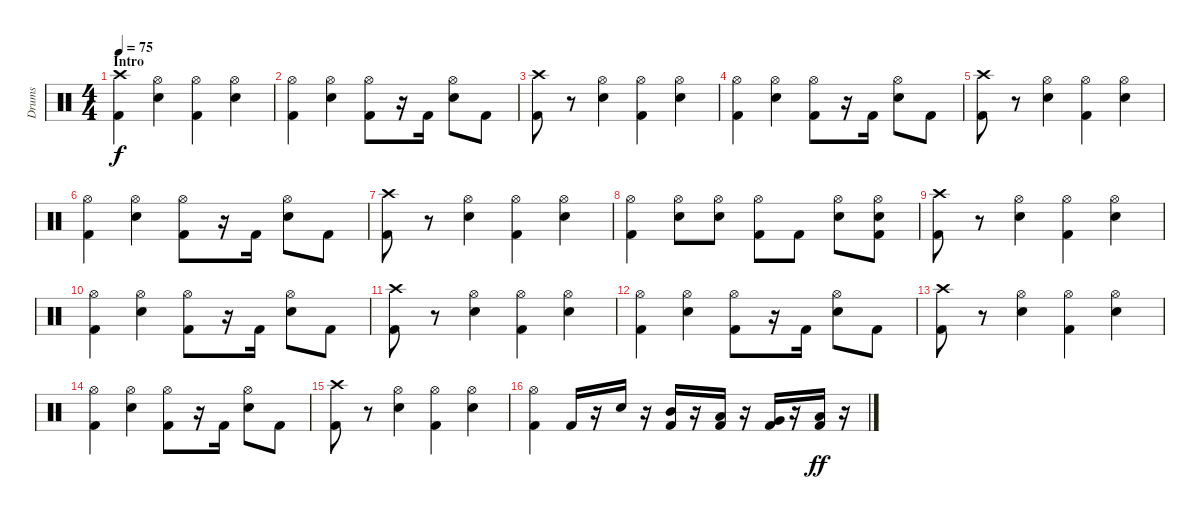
\track ("Drums" "Drums") {instrument percussion}
\staff {score}
\articulation defaults
\ts (4 4)
\section ("" "Intro")
\tempo 75
\clef neutral
\ks c
("Crash high (hit)" "Kick (hit) 2").4{dy f} ("Hi-Hat (open)" "Snare (hit) 2").4 ("Hi-Hat (open)" "Kick (hit) 2").4 ("Hi-Hat (open)" "Snare (hit) 2").4 |
("Hi-Hat (open)" "Kick (hit) 2").4 ("Hi-Hat (open)" "Snare (hit) 2").4 ("Hi-Hat (open)" "Kick (hit) 2").8 r.16 "Kick (hit) 2".16 ("Hi-Hat (open)" "Snare (hit) 2").8 "Kick (hit) 2".8 |
("Crash high (hit)" "Kick (hit) 2").8 r.8 ("Hi-Hat (open)" "Snare (hit) 2").4 ("Hi-Hat (open)" "Kick (hit) 2").4 ("Hi-Hat (open)" "Snare (hit) 2").4 |
("Hi-Hat (open)" "Kick (hit) 2").4 ("Hi-Hat (open)" "Snare (hit) 2").4 ("Hi-Hat (open)" "Kick (hit) 2").8 r.16 "Kick (hit) 2".16 ("Hi-Hat (open)" "Snare (hit) 2").8 "Kick (hit) 2".8 |
("Crash high (hit)" "Kick (hit) 2").8 r.8 ("Hi-Hat (open)" "Snare (hit) 2").4 ("Hi-Hat (open)" "Kick (hit) 2").4 ("Hi-Hat (open)" "Snare (hit) 2").4 |
("Hi-Hat (open)" "Kick (hit) 2").4 ("Hi-Hat (open)" "Snare (hit) 2").4 ("Hi-Hat (open)" "Kick (hit) 2").8 r.16 "Kick (hit) 2".16 ("Hi-Hat (open)" "Snare (hit) 2").8 "Kick (hit) 2".8 |
("Crash high (hit)" "Kick (hit) 2").8 r.8 ("Hi-Hat (open)" "Snare (hit) 2").4 ("Hi-Hat (open)" "Kick (hit) 2").4 ("Hi-Hat (open)" "Snare (hit) 2").4 |
("Hi-Hat (open)" "Kick (hit) 2").4 ("Hi-Hat (open)" "Snare (hit) 2").8 ("Hi-Hat (open)" "Snare (hit) 2").8 ("Hi-Hat (open)" "Kick (hit) 2").8 "Kick (hit) 2".8 ("Hi-Hat (open)" "Snare (hit) 2").8 ("Hi-Hat (open)" "Snare (hit) 2" "Kick (hit) 2").8 |
("Crash high (hit)" "Kick (hit) 2").8 r.8 ("Hi-Hat (open)" "Snare (hit) 2").4 ("Hi-Hat (open)" "Kick (hit) 2").4 ("Hi-Hat (open)" "Snare (hit) 2").4 |
("Hi-Hat (open)" "Kick (hit) 2").4 ("Hi-Hat (open)" "Snare (hit) 2").4 ("Hi-Hat (open)" "Kick (hit) 2").8 r.16 "Kick (hit) 2".16 ("Hi-Hat (open)" "Snare (hit) 2").8 "Kick (hit) 2".8 |
("Crash high (hit)" "Kick (hit) 2").8 r.8 ("Hi-Hat (open)" "Snare (hit) 2").4 ("Hi-Hat (open)" "Kick (hit) 2").4 ("Hi-Hat (open)" "Snare (hit) 2").4 |
("Hi-Hat (open)" "Kick (hit) 2").4 ("Hi-Hat (open)" "Snare (hit) 2").4 ("Hi-Hat (open)" "Kick (hit) 2").8 r.16 "Kick (hit) 2".16 ("Hi-Hat (open)" "Snare (hit) 2").8 "Kick (hit) 2".8 |
("Crash high (hit)" "Kick (hit) 2").8 r.8 ("Hi-Hat (open)" "Snare (hit) 2").4 ("Hi-Hat (open)" "Kick (hit) 2").4 ("Hi-Hat (open)" "Snare (hit) 2").4 |
("Hi-Hat (open)" "Kick (hit) 2").4 ("Hi-Hat (open)" "Snare (hit) 2").4 ("Hi-Hat (open)" "Kick (hit) 2").8 r.16 "Kick (hit) 2".16 ("Hi-Hat (open)" "Snare (hit) 2").8 "Kick (hit) 2".8 |
("Crash high (hit)" "Kick (hit) 2").8 r.8 ("Hi-Hat (open)" "Snare (hit) 2").4 ("Hi-Hat (open)" "Kick (hit) 2").4 ("Hi-Hat (open)" "Snare (hit) 2").4 |
("Hi-Hat (open)" "Kick (hit) 2").4 "Kick (hit) 2".16 r.16 "Snare (hit) 2".16 r.16 ("Mid Tom (hit)" "Kick (hit) 2").16 r.16 ("Low Tom (hit)" "Kick (hit) 2").16 r.16 ("Very Low Tom (hit)" "Kick (hit) 2").16 r.16 ("Low Floor Tom (hit)" "Kick (hit) 2").16{dy ff} r.16
